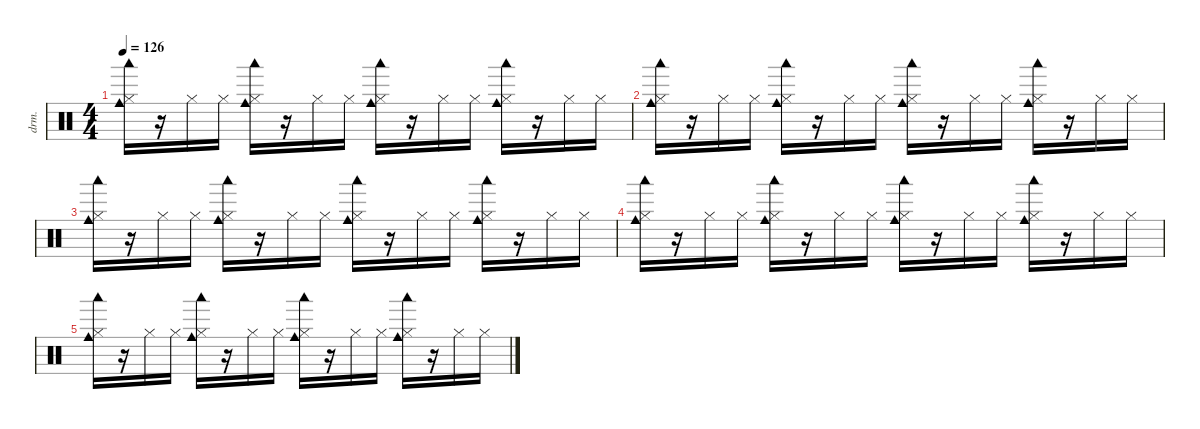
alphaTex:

\defaultSystemsLayout 4
\hideDynamics
\bracketExtendMode nobrackets
\otherSystemsTrackNameOrientation horizontal
\track ("Drums" "drm.") {instrument percussion}
\staff {score}
\articulation defaults
\ts (4 4)
\tempo 126
\clef neutral
\ks c
("Cowbell medium (hit)" "Hi-Hat (closed)" "Woodblock low (hit)").16{dy f beam Down} r.16{beam Down} "Hi-Hat (closed)".16{beam Down} "Hi-Hat (closed)".16{beam Down} ("Cowbell medium (hit)" "Hi-Hat (closed)" "Woodblock low (hit)").16{beam Down} r.16{beam Down} "Hi-Hat (closed)".16{beam Down} "Hi-Hat (closed)".16{beam Down} ("Cowbell medium (hit)" "Hi-Hat (closed)" "Woodblock low (hit)").16{beam Down} r.16{beam Down} "Hi-Hat (closed)".16{beam Down} "Hi-Hat (closed)".16{beam Down} ("Cowbell medium (hit)" "Hi-Hat (closed)" "Woodblock low (hit)").16{beam Down} r.16{beam Down} "Hi-Hat (closed)".16{beam Down} "Hi-Hat (closed)".16{beam Down} |
("Cowbell medium (hit)" "Hi-Hat (closed)" "Woodblock low (hit)").16{beam Down} r.16{beam Down} "Hi-Hat (closed)".16{beam Down} "Hi-Hat (closed)".16{beam Down} ("Cowbell medium (hit)" "Hi-Hat (closed)" "Woodblock low (hit)").16{beam Down} r.16{beam Down} "Hi-Hat (closed)".16{beam Down} "Hi-Hat (closed)".16{beam Down} ("Cowbell medium (hit)" "Hi-Hat (closed)" "Woodblock low (hit)").16{beam Down} r.16{beam Down} "Hi-Hat (closed)".16{beam Down} "Hi-Hat (closed)".16{beam Down} ("Cowbell medium (hit)" "Hi-Hat (closed)" "Woodblock low (hit)").16{beam Down} r.16{beam Down} "Hi-Hat (closed)".16{beam Down} "Hi-Hat (closed)".16{beam Down} |
("Cowbell medium (hit)" "Hi-Hat (closed)" "Woodblock low (hit)").16{beam Down} r.16{beam Down} "Hi-Hat (closed)".16{beam Down} "Hi-Hat (closed)".16{beam Down} ("Cowbell medium (hit)" "Hi-Hat (closed)" "Woodblock low (hit)").16{beam Down} r.16{beam Down} "Hi-Hat (closed)".16{beam Down} "Hi-Hat (closed)".16{beam Down} ("Cowbell medium (hit)" "Hi-Hat (closed)" "Woodblock low (hit)").16{beam Down} r.16{beam Down} "Hi-Hat (closed)".16{beam Down} "Hi-Hat (closed)".16{beam Down} ("Cowbell medium (hit)" "Hi-Hat (closed)" "Woodblock low (hit)").16{beam Down} r.16{beam Down} "Hi-Hat (closed)".16{beam Down} "Hi-Hat (closed)".16{beam Down} |
("Cowbell medium (hit)" "Hi-Hat (closed)" "Woodblock low (hit)").16{beam Down} r.16{beam Down} "Hi-Hat (closed)".16{beam Down} "Hi-Hat (closed)".16{beam Down} ("Cowbell medium (hit)" "Hi-Hat (closed)" "Woodblock low (hit)").16{beam Down} r.16{beam Down} "Hi-Hat (closed)".16{beam Down} "Hi-Hat (closed)".16{beam Down} ("Cowbell medium (hit)" "Hi-Hat (closed)" "Woodblock low (hit)").16{beam Down} r.16{beam Down} "Hi-Hat (closed)".16{beam Down} "Hi-Hat (closed)".16{beam Down} ("Cowbell medium (hit)" "Hi-Hat (closed)" "Woodblock low (hit)").16{beam Down} r.16{beam Down} "Hi-Hat (closed)".16{beam Down} "Hi-Hat (closed)".16{beam Down} |
("Cowbell medium (hit)" "Hi-Hat (closed)" "Woodblock low (hit)").16{beam Down} r.16{beam Down} "Hi-Hat (closed)".16{beam Down} "Hi-Hat (closed)".16{beam Down} ("Cowbell medium (hit)" "Hi-Hat (closed)" "Woodblock low (hit)").16{beam Down} r.16{beam Down} "Hi-Hat (closed)".16{beam Down} "Hi-Hat (closed)".16{beam Down} ("Cowbell medium (hit)" "Hi-Hat (closed)" "Woodblock low (hit)").16{beam Down} r.16{beam Down} "Hi-Hat (closed)".16{beam Down} "Hi-Hat (closed)".16{beam Down} ("Cowbell medium (hit)" "Hi-Hat (closed)" "Woodblock low (hit)").16{beam Down} r.16{beam Down} "Hi-Hat (closed)".16{beam Down} "Hi-Hat (closed)".16{beam Down}
